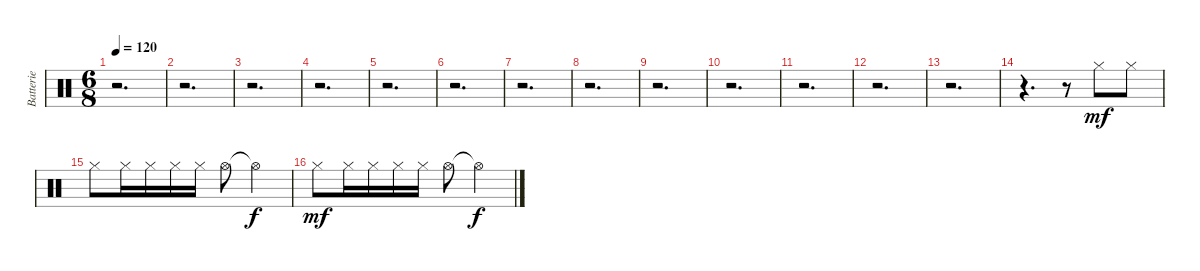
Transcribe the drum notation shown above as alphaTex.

\track ("Batterie" "Batterie") {instrument percussion}
\staff {score}
\articulation defaults
\ts (6 8)
\tempo 120
\clef neutral
\ks c
r.2{d dy mf} |
r.2{d} |
r.2{d} |
r.2{d} |
r.2{d} |
r.2{d} |
r.2{d} |
r.2{d} |
r.2{d} |
r.2{d} |
r.2{d} |
r.2{d} |
r.2{d} |
r.4{d} r.8 "Hi-Hat (closed)".8 "Hi-Hat (closed)".8 |
"Hi-Hat (closed)".8 "Hi-Hat (closed)".16 "Hi-Hat (closed)".16 "Hi-Hat (closed)".16 "Hi-Hat (closed)".16 "Hi-Hat (open)".8 "Hi-Hat (open)"{t}.4{dy f} |
"Hi-Hat (closed)".8{dy mf} "Hi-Hat (closed)".16 "Hi-Hat (closed)".16 "Hi-Hat (closed)".16 "Hi-Hat (closed)".16 "Hi-Hat (open)".8 "Hi-Hat (open)"{t}.4{dy f}
